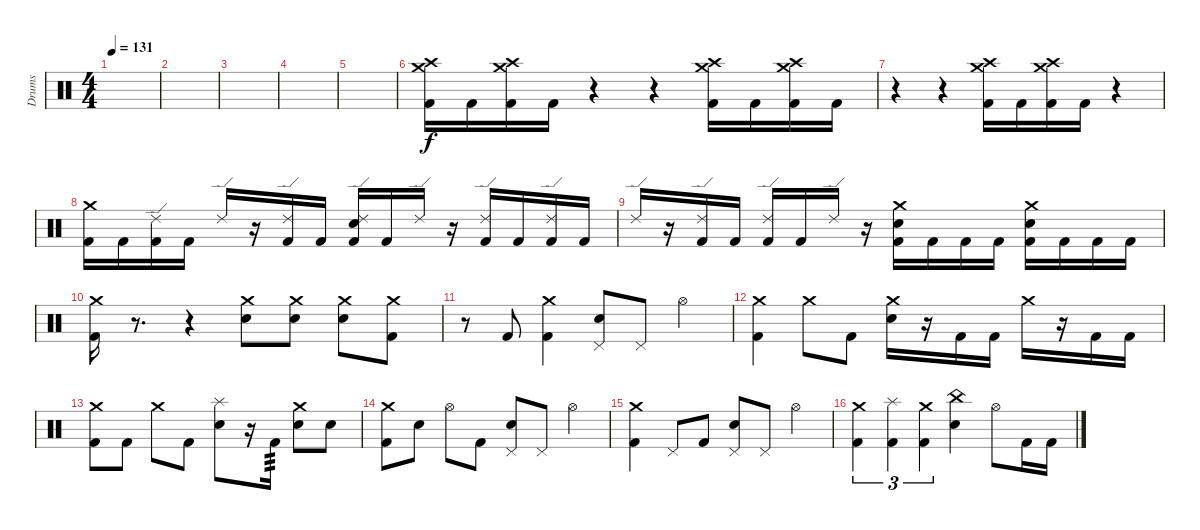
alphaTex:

\track ("Drums" "Drums") {instrument percussion}
\staff {score}
\articulation defaults
\ts (4 4)
\tempo 131
\clef neutral
\ks c
|
|
|
|
|
("Crash medium (hit)" "Crash high (hit)" "Kick (hit) 2").16 "Kick (hit) 2".16 ("Crash medium (hit)" "Crash high (hit)" "Kick (hit) 2").16 "Kick (hit) 2".16 r.4 r.4 ("Crash medium (hit)" "Crash high (hit)" "Kick (hit) 2").16 "Kick (hit) 2".16 ("Crash medium (hit)" "Crash high (hit)" "Kick (hit) 2").16 "Kick (hit) 2".16 |
r.4 r.4 ("Crash medium (hit)" "Crash high (hit)" "Kick (hit) 2").16 "Kick (hit) 2".16 ("Crash medium (hit)" "Crash high (hit)" "Kick (hit) 2").16 "Kick (hit) 2".16 r.4 |
("Crash medium (hit)" "Kick (hit) 2").16 "Kick (hit) 2".16 ("Ride (edge) 2" "Kick (hit) 2").16 "Kick (hit) 2".16 "Ride (edge) 2".16 r.16 ("Ride (edge) 2" "Kick (hit) 2").16 "Kick (hit) 2".16 ("Ride (edge) 2" "Electric Snare (hit)" "Kick (hit) 2").16 "Kick (hit) 2".16 "Ride (edge) 2".16 r.16 ("Ride (edge) 2" "Kick (hit) 2").16 "Kick (hit) 2".16 ("Ride (edge) 2" "Kick (hit) 2").16 "Kick (hit) 2".16 |
"Ride (edge) 2".16 r.16 ("Ride (edge) 2" "Kick (hit) 2").16 "Kick (hit) 2".16 ("Ride (edge) 2" "Kick (hit) 2").16 "Kick (hit) 2".16 "Ride (edge) 2".16 r.16 ("Crash medium (hit)" "Electric Snare (hit)" "Kick (hit) 2").16 "Kick (hit) 2".16 "Kick (hit) 2".16 "Kick (hit) 2".16 ("Crash medium (hit)" "Electric Snare (hit)" "Kick (hit) 2").16 "Kick (hit) 2".16 "Kick (hit) 2".16 "Kick (hit) 2".16 |
("Crash medium (hit)" "Kick (hit) 2").16 r.8{d volume 0} r.4 ("Crash medium (hit)" "Electric Snare (hit)").8{volume 16} ("Crash medium (hit)" "Electric Snare (hit)").8 ("Crash medium (hit)" "Electric Snare (hit)").8 ("Crash medium (hit)" "Kick (hit) 2").8 |
r.8 "Kick (hit) 2".8 ("Crash medium (hit)" "Kick (hit) 2").4 ("Pedal Hi-Hat (hit)" "Electric Snare (hit)").8 "Pedal Hi-Hat (hit)".8 "Hi-Hat (open)".4 |
("Crash medium (hit)" "Kick (hit) 2").4 "Crash medium (hit)".8 "Kick (hit) 2".8 ("Crash medium (hit)" "Electric Snare (hit)").16 r.16 "Kick (hit) 2".16 "Kick (hit) 2".16 "Crash medium (hit)".16 r.16 "Kick (hit) 2".16 "Kick (hit) 2".16 |
("Crash medium (hit)" "Kick (hit) 2").8 "Kick (hit) 2".8 "Crash medium (hit)".8 "Kick (hit) 2".8 ("Splash (hit)" "Electric Snare (hit)").8 r.16 "Kick (hit) 2".16{tp 3} ("Crash medium (hit)" "Electric Snare (hit)").8 "Electric Snare (hit)".8 |
("Crash medium (hit)" "Kick (hit) 2").8 "Electric Snare (hit)".8 "Hi-Hat (open)".8 "Kick (hit) 2".8 ("Pedal Hi-Hat (hit)" "Electric Snare (hit)").8 "Pedal Hi-Hat (hit)".8 "Hi-Hat (open)".4 |
("Crash medium (hit)" "Kick (hit) 2").4 "Pedal Hi-Hat (hit)".8 "Kick (hit) 2".8 ("Pedal Hi-Hat (hit)" "Electric Snare (hit)").8 "Pedal Hi-Hat (hit)".8 "Hi-Hat (open)".4 |
("Crash medium (hit)" "Kick (hit) 2").4{tu (3 2)} ("Splash (hit)" "Kick (hit) 2").4{tu (3 2)} ("Crash medium (hit)" "Kick (hit) 2").4{tu (3 2)} ("China (hit)" "Electric Snare (hit)").4 "Hi-Hat (open)".8 "Kick (hit) 2".16 "Kick (hit) 2".16
